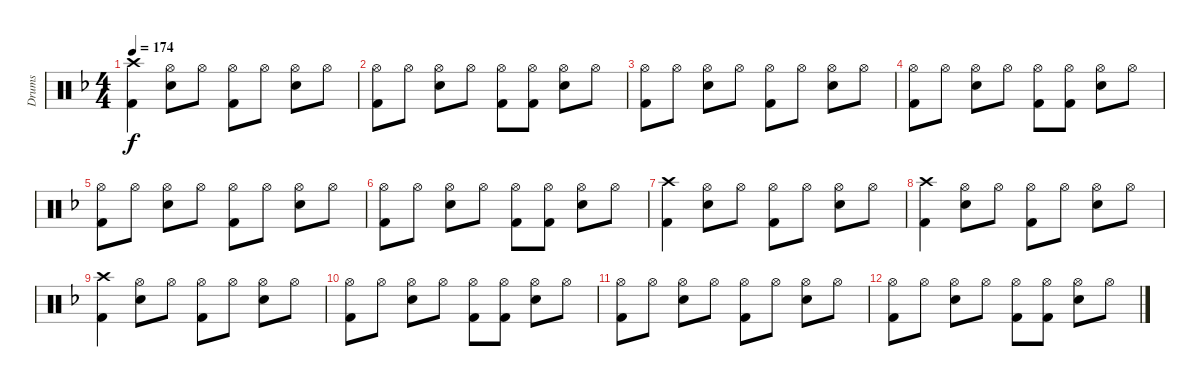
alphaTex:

\track ("Drums" "Drums") {instrument percussion}
\staff {score}
\articulation defaults
\ts (4 4)
\tempo 174
\clef neutral
\ks dminor
("Kick (hit) 2" "Crash high (hit)").4{dy f} ("Snare (hit) 2" "Hi-Hat (open)").8 "Hi-Hat (open)".8 ("Kick (hit) 2" "Hi-Hat (open)").8 "Hi-Hat (open)".8 ("Snare (hit) 2" "Hi-Hat (open)").8 "Hi-Hat (open)".8 |
("Kick (hit) 2" "Hi-Hat (open)").8 "Hi-Hat (open)".8 ("Snare (hit) 2" "Hi-Hat (open)").8 "Hi-Hat (open)".8 ("Kick (hit) 2" "Hi-Hat (open)").8 ("Kick (hit) 2" "Hi-Hat (open)").8 ("Snare (hit) 2" "Hi-Hat (open)").8 "Hi-Hat (open)".8 |
("Kick (hit) 2" "Hi-Hat (open)").8 "Hi-Hat (open)".8 ("Snare (hit) 2" "Hi-Hat (open)").8 "Hi-Hat (open)".8 ("Kick (hit) 2" "Hi-Hat (open)").8 "Hi-Hat (open)".8 ("Snare (hit) 2" "Hi-Hat (open)").8 "Hi-Hat (open)".8 |
("Kick (hit) 2" "Hi-Hat (open)").8 "Hi-Hat (open)".8 ("Snare (hit) 2" "Hi-Hat (open)").8 "Hi-Hat (open)".8 ("Kick (hit) 2" "Hi-Hat (open)").8 ("Kick (hit) 2" "Hi-Hat (open)").8 ("Snare (hit) 2" "Hi-Hat (open)").8 "Hi-Hat (open)".8 |
("Kick (hit) 2" "Hi-Hat (open)").8 "Hi-Hat (open)".8 ("Snare (hit) 2" "Hi-Hat (open)").8 "Hi-Hat (open)".8 ("Kick (hit) 2" "Hi-Hat (open)").8 "Hi-Hat (open)".8 ("Snare (hit) 2" "Hi-Hat (open)").8 "Hi-Hat (open)".8 |
("Kick (hit) 2" "Hi-Hat (open)").8 "Hi-Hat (open)".8 ("Snare (hit) 2" "Hi-Hat (open)").8 "Hi-Hat (open)".8 ("Kick (hit) 2" "Hi-Hat (open)").8 ("Kick (hit) 2" "Hi-Hat (open)").8 ("Snare (hit) 2" "Hi-Hat (open)").8 "Hi-Hat (open)".8 |
("Kick (hit) 2" "Crash high (hit)").4 ("Snare (hit) 2" "Hi-Hat (open)").8 "Hi-Hat (open)".8 ("Kick (hit) 2" "Hi-Hat (open)").8 "Hi-Hat (open)".8 ("Snare (hit) 2" "Hi-Hat (open)").8 "Hi-Hat (open)".8 |
("Kick (hit) 2" "Crash high (hit)").4 ("Snare (hit) 2" "Hi-Hat (open)").8 "Hi-Hat (open)".8 ("Kick (hit) 2" "Hi-Hat (open)").8 "Hi-Hat (open)".8 ("Snare (hit) 2" "Hi-Hat (open)").8 "Hi-Hat (open)".8 |
("Kick (hit) 2" "Crash high (hit)").4 ("Snare (hit) 2" "Hi-Hat (open)").8 "Hi-Hat (open)".8 ("Kick (hit) 2" "Hi-Hat (open)").8 "Hi-Hat (open)".8 ("Snare (hit) 2" "Hi-Hat (open)").8 "Hi-Hat (open)".8 |
("Kick (hit) 2" "Hi-Hat (open)").8 "Hi-Hat (open)".8 ("Snare (hit) 2" "Hi-Hat (open)").8 "Hi-Hat (open)".8 ("Kick (hit) 2" "Hi-Hat (open)").8 ("Kick (hit) 2" "Hi-Hat (open)").8 ("Snare (hit) 2" "Hi-Hat (open)").8 "Hi-Hat (open)".8 |
("Kick (hit) 2" "Hi-Hat (open)").8 "Hi-Hat (open)".8 ("Snare (hit) 2" "Hi-Hat (open)").8 "Hi-Hat (open)".8 ("Kick (hit) 2" "Hi-Hat (open)").8 "Hi-Hat (open)".8 ("Snare (hit) 2" "Hi-Hat (open)").8 "Hi-Hat (open)".8 |
("Kick (hit) 2" "Hi-Hat (open)").8 "Hi-Hat (open)".8 ("Snare (hit) 2" "Hi-Hat (open)").8 "Hi-Hat (open)".8 ("Kick (hit) 2" "Hi-Hat (open)").8 ("Kick (hit) 2" "Hi-Hat (open)").8 ("Snare (hit) 2" "Hi-Hat (open)").8 "Hi-Hat (open)".8
